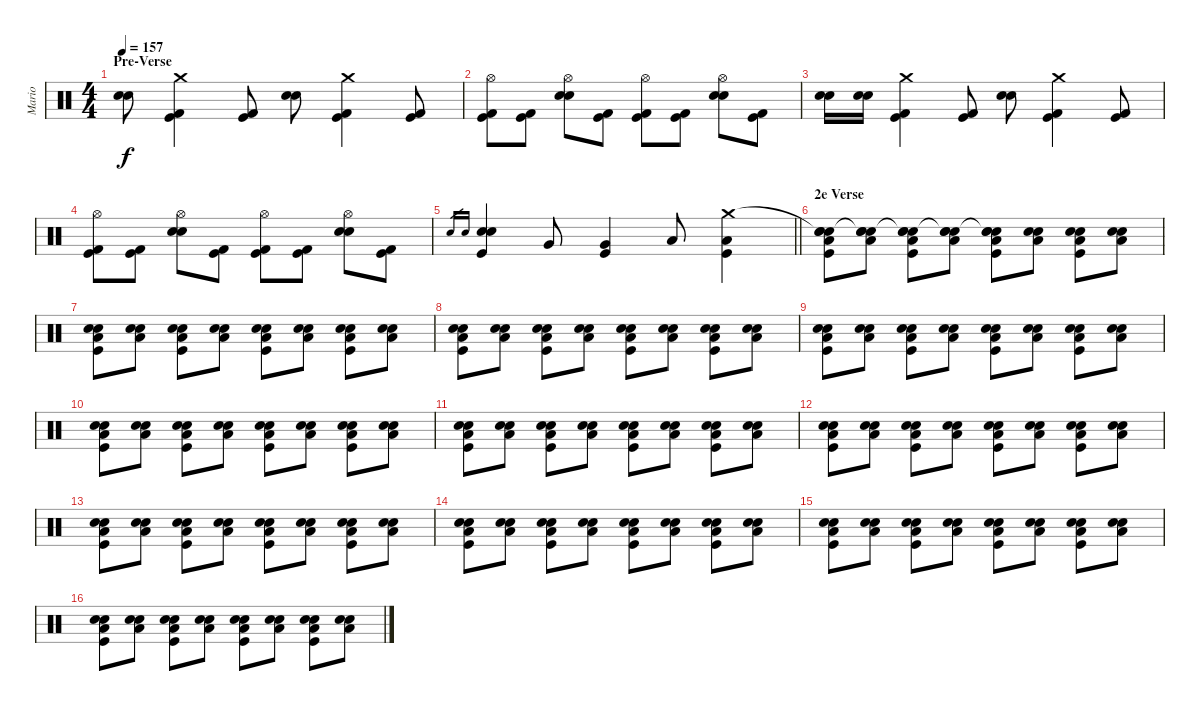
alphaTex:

\track ("Mario" "Mario") {instrument percussion}
\staff {score}
\articulation defaults
\ts (4 4)
\section ("" "Pre-Verse")
\tempo 157
\clef neutral
\ks c
("Snare (hit) 2" "Electric Snare (hit)").8{dy f} ("Crash medium (hit)" "Kick (hit)" "Kick (hit) 2").4 ("Kick (hit)" "Kick (hit) 2").8 ("Snare (hit) 2" "Electric Snare (hit)").8 ("Crash medium (hit)" "Kick (hit)" "Kick (hit) 2").4 ("Kick (hit)" "Kick (hit) 2").8 |
("Hi-Hat (open)" "Kick (hit)" "Kick (hit) 2").8 ("Kick (hit)" "Kick (hit) 2").8 ("Hi-Hat (open)" "Snare (hit) 2" "Electric Snare (hit)").8 ("Kick (hit)" "Kick (hit) 2").8 ("Hi-Hat (open)" "Kick (hit)" "Kick (hit) 2").8 ("Kick (hit)" "Kick (hit) 2").8 ("Hi-Hat (open)" "Snare (hit) 2" "Electric Snare (hit)").8 ("Kick (hit)" "Kick (hit) 2").8 |
("Snare (hit) 2" "Electric Snare (hit)").16 ("Snare (hit) 2" "Electric Snare (hit)").16 ("Crash medium (hit)" "Kick (hit)" "Kick (hit) 2").4 ("Kick (hit)" "Kick (hit) 2").8 ("Snare (hit) 2" "Electric Snare (hit)").8 ("Crash medium (hit)" "Kick (hit)" "Kick (hit) 2").4 ("Kick (hit)" "Kick (hit) 2").8 |
("Hi-Hat (open)" "Kick (hit)" "Kick (hit) 2").8 ("Kick (hit)" "Kick (hit) 2").8 ("Hi-Hat (open)" "Snare (hit) 2" "Electric Snare (hit)").8 ("Kick (hit)" "Kick (hit) 2").8 ("Hi-Hat (open)" "Kick (hit)" "Kick (hit) 2").8 ("Kick (hit)" "Kick (hit) 2").8 ("Hi-Hat (open)" "Snare (hit) 2" "Electric Snare (hit)").8 ("Kick (hit)" "Kick (hit) 2").8 |
\barLineRight lightlight "Snare (hit) 2".16{gr} "Electric Snare (hit)".16{gr}
("Snare (hit) 2" "Electric Snare (hit)" "Kick (hit)").4 "Very Low Tom (hit)".8 ("Very Low Tom (hit)" "Kick (hit)").4 "Low Floor Tom (hit)".8 ("Crash medium (hit)" "Low Floor Tom (hit)" "Kick (hit)").4 |
\section ("" "2e Verse")
("Snare (hit)"{t} "Snare (hit) 2" "Electric Snare (hit)" "Low Floor Tom (hit)" "Kick (hit)").8{volume 4} ("Snare (hit)"{t} "Snare (hit) 2" "Electric Snare (hit)" "Low Floor Tom (hit)").8 ("Snare (hit)"{t} "Snare (hit) 2" "Electric Snare (hit)" "Low Floor Tom (hit)" "Kick (hit)").8 ("Snare (hit)"{t} "Snare (hit) 2" "Electric Snare (hit)" "Low Floor Tom (hit)").8 ("Snare (hit)"{t} "Snare (hit) 2" "Electric Snare (hit)" "Low Floor Tom (hit)" "Kick (hit)").8 ("Snare (hit) 2" "Electric Snare (hit)" "Low Floor Tom (hit)").8 ("Snare (hit) 2" "Electric Snare (hit)" "Low Floor Tom (hit)" "Kick (hit)").8 ("Snare (hit) 2" "Electric Snare (hit)" "Low Floor Tom (hit)").8 |
("Snare (hit) 2" "Electric Snare (hit)" "Low Floor Tom (hit)" "Kick (hit)").8{volume 5} ("Snare (hit) 2" "Electric Snare (hit)" "Low Floor Tom (hit)").8 ("Snare (hit) 2" "Electric Snare (hit)" "Low Floor Tom (hit)" "Kick (hit)").8 ("Snare (hit) 2" "Electric Snare (hit)" "Low Floor Tom (hit)").8 ("Snare (hit) 2" "Electric Snare (hit)" "Low Floor Tom (hit)" "Kick (hit)").8 ("Snare (hit) 2" "Electric Snare (hit)" "Low Floor Tom (hit)").8 ("Snare (hit) 2" "Electric Snare (hit)" "Low Floor Tom (hit)" "Kick (hit)").8 ("Snare (hit) 2" "Electric Snare (hit)" "Low Floor Tom (hit)").8 |
("Snare (hit) 2" "Electric Snare (hit)" "Low Floor Tom (hit)" "Kick (hit)").8{volume 6} ("Snare (hit) 2" "Electric Snare (hit)" "Low Floor Tom (hit)").8 ("Snare (hit) 2" "Electric Snare (hit)" "Low Floor Tom (hit)" "Kick (hit)").8 ("Snare (hit) 2" "Electric Snare (hit)" "Low Floor Tom (hit)").8 ("Snare (hit) 2" "Electric Snare (hit)" "Low Floor Tom (hit)" "Kick (hit)").8 ("Snare (hit) 2" "Electric Snare (hit)" "Low Floor Tom (hit)").8 ("Snare (hit) 2" "Electric Snare (hit)" "Low Floor Tom (hit)" "Kick (hit)").8 ("Snare (hit) 2" "Electric Snare (hit)" "Low Floor Tom (hit)").8 |
("Snare (hit) 2" "Electric Snare (hit)" "Low Floor Tom (hit)" "Kick (hit)").8{volume 7} ("Snare (hit) 2" "Electric Snare (hit)" "Low Floor Tom (hit)").8 ("Snare (hit) 2" "Electric Snare (hit)" "Low Floor Tom (hit)" "Kick (hit)").8 ("Snare (hit) 2" "Electric Snare (hit)" "Low Floor Tom (hit)").8 ("Snare (hit) 2" "Electric Snare (hit)" "Low Floor Tom (hit)" "Kick (hit)").8 ("Snare (hit) 2" "Electric Snare (hit)" "Low Floor Tom (hit)").8 ("Snare (hit) 2" "Electric Snare (hit)" "Low Floor Tom (hit)" "Kick (hit)").8 ("Snare (hit) 2" "Electric Snare (hit)" "Low Floor Tom (hit)").8 |
("Snare (hit) 2" "Electric Snare (hit)" "Low Floor Tom (hit)" "Kick (hit)").8{volume 8} ("Snare (hit) 2" "Electric Snare (hit)" "Low Floor Tom (hit)").8 ("Snare (hit) 2" "Electric Snare (hit)" "Low Floor Tom (hit)" "Kick (hit)").8 ("Snare (hit) 2" "Electric Snare (hit)" "Low Floor Tom (hit)").8 ("Snare (hit) 2" "Electric Snare (hit)" "Low Floor Tom (hit)" "Kick (hit)").8 ("Snare (hit) 2" "Electric Snare (hit)" "Low Floor Tom (hit)").8 ("Snare (hit) 2" "Electric Snare (hit)" "Low Floor Tom (hit)" "Kick (hit)").8 ("Snare (hit) 2" "Electric Snare (hit)" "Low Floor Tom (hit)").8 |
("Snare (hit) 2" "Electric Snare (hit)" "Low Floor Tom (hit)" "Kick (hit)").8{volume 9} ("Snare (hit) 2" "Electric Snare (hit)" "Low Floor Tom (hit)").8 ("Snare (hit) 2" "Electric Snare (hit)" "Low Floor Tom (hit)" "Kick (hit)").8 ("Snare (hit) 2" "Electric Snare (hit)" "Low Floor Tom (hit)").8 ("Snare (hit) 2" "Electric Snare (hit)" "Low Floor Tom (hit)" "Kick (hit)").8 ("Snare (hit) 2" "Electric Snare (hit)" "Low Floor Tom (hit)").8 ("Snare (hit) 2" "Electric Snare (hit)" "Low Floor Tom (hit)" "Kick (hit)").8 ("Snare (hit) 2" "Electric Snare (hit)" "Low Floor Tom (hit)").8 |
("Snare (hit) 2" "Electric Snare (hit)" "Low Floor Tom (hit)" "Kick (hit)").8{volume 10} ("Snare (hit) 2" "Electric Snare (hit)" "Low Floor Tom (hit)").8 ("Snare (hit) 2" "Electric Snare (hit)" "Low Floor Tom (hit)" "Kick (hit)").8 ("Snare (hit) 2" "Electric Snare (hit)" "Low Floor Tom (hit)").8 ("Snare (hit) 2" "Electric Snare (hit)" "Low Floor Tom (hit)" "Kick (hit)").8 ("Snare (hit) 2" "Electric Snare (hit)" "Low Floor Tom (hit)").8 ("Snare (hit) 2" "Electric Snare (hit)" "Low Floor Tom (hit)" "Kick (hit)").8 ("Snare (hit) 2" "Electric Snare (hit)" "Low Floor Tom (hit)").8 |
("Snare (hit) 2" "Electric Snare (hit)" "Low Floor Tom (hit)" "Kick (hit)").8{volume 11} ("Snare (hit) 2" "Electric Snare (hit)" "Low Floor Tom (hit)").8 ("Snare (hit) 2" "Electric Snare (hit)" "Low Floor Tom (hit)" "Kick (hit)").8 ("Snare (hit) 2" "Electric Snare (hit)" "Low Floor Tom (hit)").8 ("Snare (hit) 2" "Electric Snare (hit)" "Low Floor Tom (hit)" "Kick (hit)").8 ("Snare (hit) 2" "Electric Snare (hit)" "Low Floor Tom (hit)").8 ("Snare (hit) 2" "Electric Snare (hit)" "Low Floor Tom (hit)" "Kick (hit)").8 ("Snare (hit) 2" "Electric Snare (hit)" "Low Floor Tom (hit)").8 |
("Snare (hit) 2" "Electric Snare (hit)" "Low Floor Tom (hit)" "Kick (hit)").8 ("Snare (hit) 2" "Electric Snare (hit)" "Low Floor Tom (hit)").8 ("Snare (hit) 2" "Electric Snare (hit)" "Low Floor Tom (hit)" "Kick (hit)").8 ("Snare (hit) 2" "Electric Snare (hit)" "Low Floor Tom (hit)").8 ("Snare (hit) 2" "Electric Snare (hit)" "Low Floor Tom (hit)" "Kick (hit)").8 ("Snare (hit) 2" "Electric Snare (hit)" "Low Floor Tom (hit)").8 ("Snare (hit) 2" "Electric Snare (hit)" "Low Floor Tom (hit)" "Kick (hit)").8 ("Snare (hit) 2" "Electric Snare (hit)" "Low Floor Tom (hit)").8 |
("Snare (hit) 2" "Electric Snare (hit)" "Low Floor Tom (hit)" "Kick (hit)").8{volume 12} ("Snare (hit) 2" "Electric Snare (hit)" "Low Floor Tom (hit)").8 ("Snare (hit) 2" "Electric Snare (hit)" "Low Floor Tom (hit)" "Kick (hit)").8 ("Snare (hit) 2" "Electric Snare (hit)" "Low Floor Tom (hit)").8 ("Snare (hit) 2" "Electric Snare (hit)" "Low Floor Tom (hit)" "Kick (hit)").8 ("Snare (hit) 2" "Electric Snare (hit)" "Low Floor Tom (hit)").8 ("Snare (hit) 2" "Electric Snare (hit)" "Low Floor Tom (hit)" "Kick (hit)").8 ("Snare (hit) 2" "Electric Snare (hit)" "Low Floor Tom (hit)").8 |
("Snare (hit) 2" "Electric Snare (hit)" "Low Floor Tom (hit)" "Kick (hit)").8 ("Snare (hit) 2" "Electric Snare (hit)" "Low Floor Tom (hit)").8 ("Snare (hit) 2" "Electric Snare (hit)" "Low Floor Tom (hit)" "Kick (hit)").8 ("Snare (hit) 2" "Electric Snare (hit)" "Low Floor Tom (hit)").8 ("Snare (hit) 2" "Electric Snare (hit)" "Low Floor Tom (hit)" "Kick (hit)").8 ("Snare (hit) 2" "Electric Snare (hit)" "Low Floor Tom (hit)").8 ("Snare (hit) 2" "Electric Snare (hit)" "Low Floor Tom (hit)" "Kick (hit)").8 ("Snare (hit) 2" "Electric Snare (hit)" "Low Floor Tom (hit)").8
